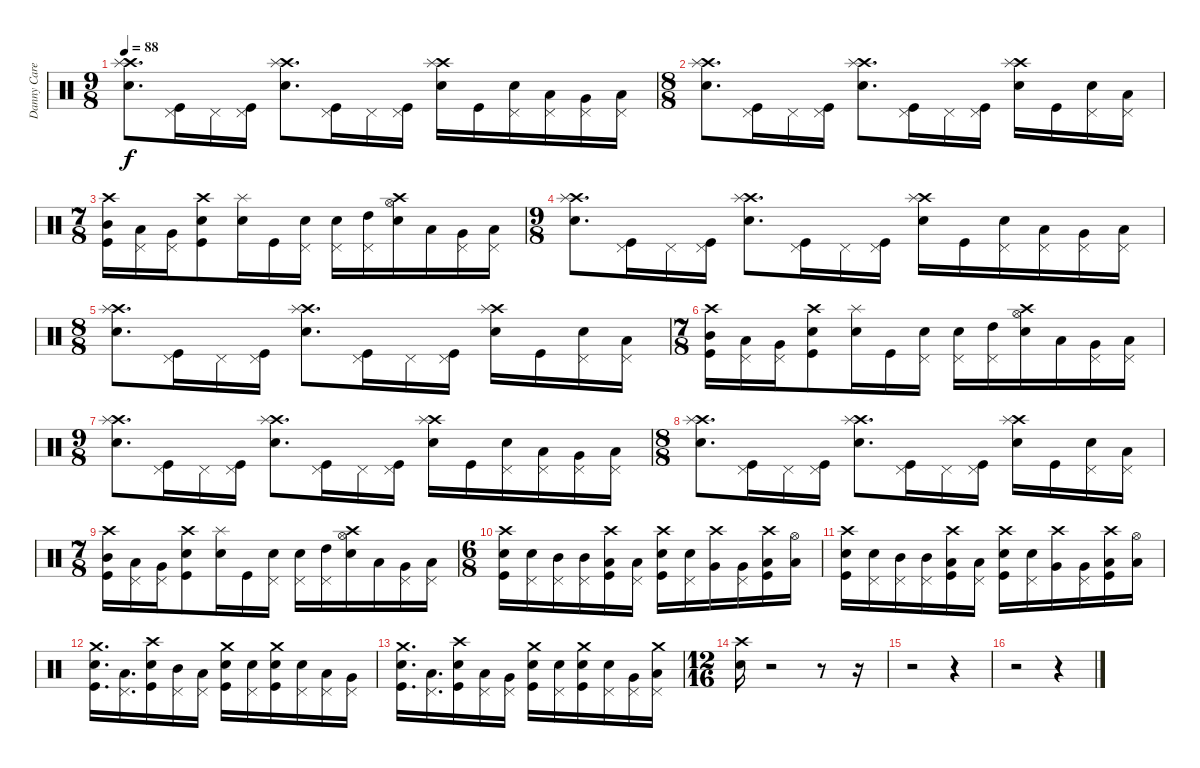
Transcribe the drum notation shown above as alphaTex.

\track ("Danny Carey" "Danny Care") {instrument percussion}
\staff {score}
\articulation defaults
\ts (9 8)
\tempo 88
\clef neutral
\ks c
("Crash high (hit)" "Splash (hit)" "Electric Snare (hit)").8{d dy f} ("Pedal Hi-Hat (hit)" "Kick (hit)").16 "Pedal Hi-Hat (hit)".16 ("Pedal Hi-Hat (hit)" "Kick (hit)").16 ("Crash high (hit)" "Splash (hit)" "Electric Snare (hit)").8{d} ("Pedal Hi-Hat (hit)" "Kick (hit)").16 "Pedal Hi-Hat (hit)".16 ("Pedal Hi-Hat (hit)" "Kick (hit)").16 ("Crash high (hit)" "Splash (hit)" "Electric Snare (hit)").16 "Kick (hit)".16 ("Pedal Hi-Hat (hit)" "Electric Snare (hit)").16 ("Pedal Hi-Hat (hit)" "Low Tom (hit)").16 ("Pedal Hi-Hat (hit)" "Very Low Tom (hit)").16 ("Pedal Hi-Hat (hit)" "Low Floor Tom (hit)").16 |
\ts (8 8)
("Crash high (hit)" "Splash (hit)" "Electric Snare (hit)").8{d} ("Pedal Hi-Hat (hit)" "Kick (hit)").16 "Pedal Hi-Hat (hit)".16 ("Pedal Hi-Hat (hit)" "Kick (hit)").16 ("Crash high (hit)" "Splash (hit)" "Electric Snare (hit)").8{d} ("Pedal Hi-Hat (hit)" "Kick (hit)").16 "Pedal Hi-Hat (hit)".16 ("Pedal Hi-Hat (hit)" "Kick (hit)").16 ("Crash high (hit)" "Splash (hit)" "Electric Snare (hit)").16 "Kick (hit)".16 ("Pedal Hi-Hat (hit)" "Electric Snare (hit)").16 ("Pedal Hi-Hat (hit)" "Low Tom (hit)").16 |
\ts (7 8)
("Crash high (hit)" "Mid Tom (hit)" "Kick (hit)").16 ("Pedal Hi-Hat (hit)" "Low Tom (hit)").16 ("Pedal Hi-Hat (hit)" "Very Low Tom (hit)").16 ("Crash high (hit)" "Electric Snare (hit)" "Kick (hit)").8 ("Splash (hit)" "Electric Snare (hit)").16 "Kick (hit)".16 ("Pedal Hi-Hat (hit)" "Electric Snare (hit)").16 ("Pedal Hi-Hat (hit)" "Electric Snare (hit)").16 ("Pedal Hi-Hat (hit)" "High Tom (hit)").16 ("Crash high (hit)" "Hi-Hat (open)" "Electric Snare (hit)").16 "Low Tom (hit)".16 ("Pedal Hi-Hat (hit)" "Very Low Tom (hit)").16 ("Pedal Hi-Hat (hit)" "Low Floor Tom (hit)").16 |
\ts (9 8)
("Crash high (hit)" "Splash (hit)" "Electric Snare (hit)").8{d} ("Pedal Hi-Hat (hit)" "Kick (hit)").16 "Pedal Hi-Hat (hit)".16 ("Pedal Hi-Hat (hit)" "Kick (hit)").16 ("Crash high (hit)" "Splash (hit)" "Electric Snare (hit)").8{d} ("Pedal Hi-Hat (hit)" "Kick (hit)").16 "Pedal Hi-Hat (hit)".16 ("Pedal Hi-Hat (hit)" "Kick (hit)").16 ("Crash high (hit)" "Splash (hit)" "Electric Snare (hit)").16 "Kick (hit)".16 ("Pedal Hi-Hat (hit)" "Electric Snare (hit)").16 ("Pedal Hi-Hat (hit)" "Low Tom (hit)").16 ("Pedal Hi-Hat (hit)" "Very Low Tom (hit)").16 ("Pedal Hi-Hat (hit)" "Low Floor Tom (hit)").16 |
\ts (8 8)
("Crash high (hit)" "Splash (hit)" "Electric Snare (hit)").8{d} ("Pedal Hi-Hat (hit)" "Kick (hit)").16 "Pedal Hi-Hat (hit)".16 ("Pedal Hi-Hat (hit)" "Kick (hit)").16 ("Crash high (hit)" "Splash (hit)" "Electric Snare (hit)").8{d} ("Pedal Hi-Hat (hit)" "Kick (hit)").16 "Pedal Hi-Hat (hit)".16 ("Pedal Hi-Hat (hit)" "Kick (hit)").16 ("Crash high (hit)" "Splash (hit)" "Electric Snare (hit)").16 "Kick (hit)".16 ("Pedal Hi-Hat (hit)" "Electric Snare (hit)").16 ("Pedal Hi-Hat (hit)" "Low Tom (hit)").16 |
\ts (7 8)
("Crash high (hit)" "Mid Tom (hit)" "Kick (hit)").16 ("Pedal Hi-Hat (hit)" "Low Tom (hit)").16 ("Pedal Hi-Hat (hit)" "Very Low Tom (hit)").16 ("Crash high (hit)" "Electric Snare (hit)" "Kick (hit)").8 ("Splash (hit)" "Electric Snare (hit)").16 "Kick (hit)".16 ("Pedal Hi-Hat (hit)" "Electric Snare (hit)").16 ("Pedal Hi-Hat (hit)" "Electric Snare (hit)").16 ("Pedal Hi-Hat (hit)" "High Tom (hit)").16 ("Crash high (hit)" "Hi-Hat (open)" "Electric Snare (hit)").16 "Low Tom (hit)".16 ("Pedal Hi-Hat (hit)" "Very Low Tom (hit)").16 ("Pedal Hi-Hat (hit)" "Low Floor Tom (hit)").16 |
\ts (9 8)
("Crash high (hit)" "Splash (hit)" "Electric Snare (hit)").8{d} ("Pedal Hi-Hat (hit)" "Kick (hit)").16 "Pedal Hi-Hat (hit)".16 ("Pedal Hi-Hat (hit)" "Kick (hit)").16 ("Crash high (hit)" "Splash (hit)" "Electric Snare (hit)").8{d} ("Pedal Hi-Hat (hit)" "Kick (hit)").16 "Pedal Hi-Hat (hit)".16 ("Pedal Hi-Hat (hit)" "Kick (hit)").16 ("Crash high (hit)" "Splash (hit)" "Electric Snare (hit)").16 "Kick (hit)".16 ("Pedal Hi-Hat (hit)" "Electric Snare (hit)").16 ("Pedal Hi-Hat (hit)" "Low Tom (hit)").16 ("Pedal Hi-Hat (hit)" "Very Low Tom (hit)").16 ("Pedal Hi-Hat (hit)" "Low Floor Tom (hit)").16 |
\ts (8 8)
("Crash high (hit)" "Splash (hit)" "Electric Snare (hit)").8{d} ("Pedal Hi-Hat (hit)" "Kick (hit)").16 "Pedal Hi-Hat (hit)".16 ("Pedal Hi-Hat (hit)" "Kick (hit)").16 ("Crash high (hit)" "Splash (hit)" "Electric Snare (hit)").8{d} ("Pedal Hi-Hat (hit)" "Kick (hit)").16 "Pedal Hi-Hat (hit)".16 ("Pedal Hi-Hat (hit)" "Kick (hit)").16 ("Crash high (hit)" "Splash (hit)" "Electric Snare (hit)").16 "Kick (hit)".16 ("Pedal Hi-Hat (hit)" "Electric Snare (hit)").16 ("Pedal Hi-Hat (hit)" "Low Tom (hit)").16 |
\ts (7 8)
("Crash high (hit)" "Mid Tom (hit)" "Kick (hit)").16 ("Pedal Hi-Hat (hit)" "Low Tom (hit)").16 ("Pedal Hi-Hat (hit)" "Very Low Tom (hit)").16 ("Crash high (hit)" "Electric Snare (hit)" "Kick (hit)").8 ("Splash (hit)" "Electric Snare (hit)").16 "Kick (hit)".16 ("Pedal Hi-Hat (hit)" "Electric Snare (hit)").16 ("Pedal Hi-Hat (hit)" "Electric Snare (hit)").16 ("Pedal Hi-Hat (hit)" "High Tom (hit)").16 ("Crash high (hit)" "Hi-Hat (open)" "Electric Snare (hit)").16 "Low Tom (hit)".16 ("Pedal Hi-Hat (hit)" "Very Low Tom (hit)").16 ("Pedal Hi-Hat (hit)" "Low Floor Tom (hit)").16 |
\ts (6 8)
("Crash high (hit)" "Electric Snare (hit)" "Kick (hit)").16 ("Pedal Hi-Hat (hit)" "Electric Snare (hit)").16 ("Pedal Hi-Hat (hit)" "Mid Tom (hit)").16 ("Pedal Hi-Hat (hit)" "Mid Tom (hit)").16 ("Crash high (hit)" "Low Tom (hit)" "Kick (hit)").16 ("Pedal Hi-Hat (hit)" "Low Tom (hit)").16 ("Crash high (hit)" "Electric Snare (hit)" "Kick (hit)").16 ("Pedal Hi-Hat (hit)" "Electric Snare (hit)").16 ("Crash high (hit)" "Very Low Tom (hit)").16 ("Pedal Hi-Hat (hit)" "Very Low Tom (hit)").16 ("Crash high (hit)" "Low Floor Tom (hit)" "Kick (hit)").16 ("Hi-Hat (open)" "Low Floor Tom (hit)").16 |
("Crash high (hit)" "Electric Snare (hit)" "Kick (hit)").16 ("Pedal Hi-Hat (hit)" "Electric Snare (hit)").16 ("Pedal Hi-Hat (hit)" "Mid Tom (hit)").16 ("Pedal Hi-Hat (hit)" "Mid Tom (hit)").16 ("Crash high (hit)" "Low Tom (hit)" "Kick (hit)").16 ("Pedal Hi-Hat (hit)" "Low Tom (hit)").16 ("Crash high (hit)" "Electric Snare (hit)" "Kick (hit)").16 ("Pedal Hi-Hat (hit)" "Electric Snare (hit)").16 ("Crash high (hit)" "Very Low Tom (hit)").16 ("Pedal Hi-Hat (hit)" "Very Low Tom (hit)").16 ("Crash high (hit)" "Low Floor Tom (hit)" "Kick (hit)").16 ("Hi-Hat (open)" "Low Floor Tom (hit)").16 |
("Crash medium (hit)" "Electric Snare (hit)" "Kick (hit)").16{d} ("Pedal Hi-Hat (hit)" "Low Floor Tom (hit)").16{d} ("Crash high (hit)" "Electric Snare (hit)" "Kick (hit)").16 ("Pedal Hi-Hat (hit)" "Mid Tom (hit)").16 ("Pedal Hi-Hat (hit)" "Low Tom (hit)").16 ("Crash medium (hit)" "Electric Snare (hit)" "Kick (hit)").16 ("Pedal Hi-Hat (hit)" "Electric Snare (hit)").16 ("Crash medium (hit)" "Electric Snare (hit)" "Kick (hit)").16 ("Pedal Hi-Hat (hit)" "Electric Snare (hit)").16 ("Pedal Hi-Hat (hit)" "Low Tom (hit)").16 ("Pedal Hi-Hat (hit)" "Very Low Tom (hit)").16 |
("Crash medium (hit)" "Electric Snare (hit)" "Kick (hit)").16{d} ("Pedal Hi-Hat (hit)" "Low Floor Tom (hit)").16{d} ("Crash high (hit)" "Electric Snare (hit)" "Kick (hit)").16 ("Pedal Hi-Hat (hit)" "Low Tom (hit)").16 ("Pedal Hi-Hat (hit)" "Very Low Tom (hit)").16 ("Crash medium (hit)" "Electric Snare (hit)" "Kick (hit)").16 ("Pedal Hi-Hat (hit)" "Electric Snare (hit)").16 ("Crash medium (hit)" "Electric Snare (hit)" "Kick (hit)").16 ("Pedal Hi-Hat (hit)" "Electric Snare (hit)").16 ("Pedal Hi-Hat (hit)" "Very Low Tom (hit)").16 ("Crash medium (hit)" "Pedal Hi-Hat (hit)" "Low Floor Tom (hit)").16 |
\ts (12 16)
("Crash high (hit)" "Electric Snare (hit)").16 r.2 r.8 r.16 |
r.2 r.4 |
r.2 r.4
